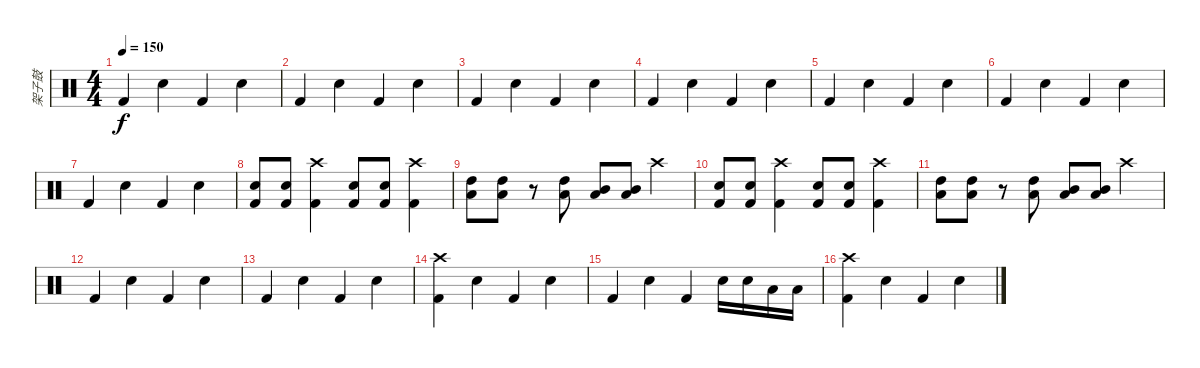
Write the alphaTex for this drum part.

\track ("架子鼓" "架子鼓") {instrument percussion}
\staff {score}
\articulation defaults
\ts (4 4)
\tempo 150
\clef neutral
\ks c "Kick (hit) 2".4{dy f} "Snare (hit) 2".4 "Kick (hit) 2".4 "Snare (hit) 2".4
|
"Kick (hit) 2".4 "Snare (hit) 2".4 "Kick (hit) 2".4 "Snare (hit) 2".4 |
"Kick (hit) 2".4 "Snare (hit) 2".4 "Kick (hit) 2".4 "Snare (hit) 2".4 |
"Kick (hit) 2".4 "Snare (hit) 2".4 "Kick (hit) 2".4 "Snare (hit) 2".4 |
"Kick (hit) 2".4 "Snare (hit) 2".4 "Kick (hit) 2".4 "Snare (hit) 2".4 |
"Kick (hit) 2".4 "Snare (hit) 2".4 "Kick (hit) 2".4 "Snare (hit) 2".4 |
"Kick (hit) 2".4 "Snare (hit) 2".4 "Kick (hit) 2".4 "Snare (hit) 2".4 |
("Kick (hit) 2" "Snare (hit) 2").8 ("Kick (hit) 2" "Snare (hit) 2").8 ("Crash high (hit)" "Kick (hit) 2").4 ("Kick (hit) 2" "Snare (hit) 2").8 ("Kick (hit) 2" "Snare (hit) 2").8 ("Crash high (hit)" "Kick (hit) 2").4 |
("High Tom (hit)" "Low Tom (hit)").8 ("High Tom (hit)" "Low Tom (hit)").8 r.8 ("High Tom (hit)" "Low Tom (hit)").8 ("Mid Tom (hit)" "Low Tom (hit)").8 ("Mid Tom (hit)" "Low Tom (hit)").8 "Crash high (hit)".4 |
("Kick (hit) 2" "Snare (hit) 2").8 ("Kick (hit) 2" "Snare (hit) 2").8 ("Crash high (hit)" "Kick (hit) 2").4 ("Kick (hit) 2" "Snare (hit) 2").8 ("Kick (hit) 2" "Snare (hit) 2").8 ("Crash high (hit)" "Kick (hit) 2").4 |
("High Tom (hit)" "Low Tom (hit)").8 ("High Tom (hit)" "Low Tom (hit)").8 r.8 ("High Tom (hit)" "Low Tom (hit)").8 ("Mid Tom (hit)" "Low Tom (hit)").8 ("Mid Tom (hit)" "Low Tom (hit)").8 "Crash high (hit)".4 |
"Kick (hit) 2".4 "Snare (hit) 2".4 "Kick (hit) 2".4 "Snare (hit) 2".4 |
"Kick (hit) 2".4 "Snare (hit) 2".4 "Kick (hit) 2".4 "Snare (hit) 2".4 |
("Crash high (hit)" "Kick (hit) 2").4 "Snare (hit) 2".4 "Kick (hit) 2".4 "Snare (hit) 2".4 |
"Kick (hit) 2".4 "Snare (hit) 2".4 "Kick (hit) 2".4 "Snare (hit) 2".16 "Snare (hit) 2".16 "Low Tom (hit)".16 "Low Tom (hit)".16 |
("Crash high (hit)" "Kick (hit) 2").4 "Snare (hit) 2".4 "Kick (hit) 2".4 "Snare (hit) 2".4
